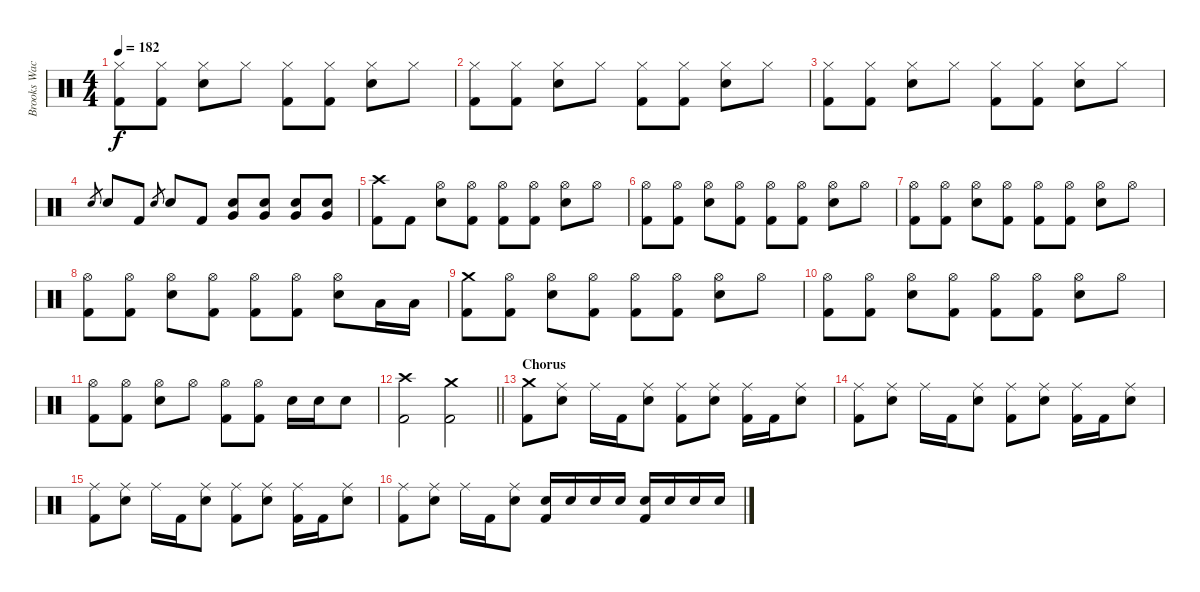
\track ("Brooks Wackerman" "Brooks Wac") {instrument percussion}
\staff {score}
\articulation defaults
\ts (4 4)
\tempo 182
\clef neutral
\ks c
("Hi-Hat (closed)" "Kick (hit) 2").8{dy f} ("Hi-Hat (closed)" "Kick (hit) 2").8 ("Hi-Hat (closed)" "Electric Snare (hit)").8 "Hi-Hat (closed)".8 ("Hi-Hat (closed)" "Kick (hit) 2").8 ("Hi-Hat (closed)" "Kick (hit) 2").8 ("Hi-Hat (closed)" "Electric Snare (hit)").8 "Hi-Hat (closed)".8 |
("Hi-Hat (closed)" "Kick (hit) 2").8 ("Hi-Hat (closed)" "Kick (hit) 2").8 ("Hi-Hat (closed)" "Electric Snare (hit)").8 "Hi-Hat (closed)".8 ("Hi-Hat (closed)" "Kick (hit) 2").8 ("Hi-Hat (closed)" "Kick (hit) 2").8 ("Hi-Hat (closed)" "Electric Snare (hit)").8 "Hi-Hat (closed)".8 |
("Hi-Hat (closed)" "Kick (hit) 2").8 ("Hi-Hat (closed)" "Kick (hit) 2").8 ("Hi-Hat (closed)" "Electric Snare (hit)").8 "Hi-Hat (closed)".8 ("Hi-Hat (closed)" "Kick (hit) 2").8 ("Hi-Hat (closed)" "Kick (hit) 2").8 ("Hi-Hat (closed)" "Electric Snare (hit)").8 "Hi-Hat (closed)".8 |
"Electric Snare (hit)".8{gr} "Electric Snare (hit)".8 "Kick (hit) 2".8 "Electric Snare (hit)".8{gr} "Electric Snare (hit)".8 "Kick (hit) 2".8 ("Very Low Tom (hit)" "Electric Snare (hit)").8 ("Very Low Tom (hit)" "Electric Snare (hit)").8 ("Very Low Tom (hit)" "Electric Snare (hit)").8 ("Very Low Tom (hit)" "Electric Snare (hit)").8 |
("Crash high (hit)" "Kick (hit) 2").8 "Kick (hit) 2".8 ("Hi-Hat (open)" "Electric Snare (hit)").8 ("Hi-Hat (open)" "Kick (hit) 2").8 ("Hi-Hat (open)" "Kick (hit) 2").8 ("Hi-Hat (open)" "Kick (hit) 2").8 ("Hi-Hat (open)" "Electric Snare (hit)").8 "Hi-Hat (open)".8 |
("Hi-Hat (open)" "Kick (hit) 2").8 ("Hi-Hat (open)" "Kick (hit) 2").8 ("Hi-Hat (open)" "Electric Snare (hit)").8 ("Hi-Hat (open)" "Kick (hit) 2").8 ("Hi-Hat (open)" "Kick (hit) 2").8 ("Hi-Hat (open)" "Kick (hit) 2").8 ("Hi-Hat (open)" "Electric Snare (hit)").8 "Hi-Hat (open)".8 |
("Hi-Hat (open)" "Kick (hit) 2").8 ("Hi-Hat (open)" "Kick (hit) 2").8 ("Hi-Hat (open)" "Electric Snare (hit)").8 ("Hi-Hat (open)" "Kick (hit) 2").8 ("Hi-Hat (open)" "Kick (hit) 2").8 ("Hi-Hat (open)" "Kick (hit) 2").8 ("Hi-Hat (open)" "Electric Snare (hit)").8 "Hi-Hat (open)".8 |
("Hi-Hat (open)" "Kick (hit) 2").8 ("Hi-Hat (open)" "Kick (hit) 2").8 ("Hi-Hat (open)" "Electric Snare (hit)").8 ("Hi-Hat (open)" "Kick (hit) 2").8 ("Hi-Hat (open)" "Kick (hit) 2").8 ("Hi-Hat (open)" "Kick (hit) 2").8 ("Hi-Hat (open)" "Electric Snare (hit)").8 "Low Tom (hit)".16 "Low Tom (hit)".16 |
("Crash medium (hit)" "Kick (hit) 2").8 ("Hi-Hat (open)" "Kick (hit) 2").8 ("Hi-Hat (open)" "Electric Snare (hit)").8 ("Hi-Hat (open)" "Kick (hit) 2").8 ("Hi-Hat (open)" "Kick (hit) 2").8 ("Hi-Hat (open)" "Kick (hit) 2").8 ("Hi-Hat (open)" "Electric Snare (hit)").8 "Hi-Hat (open)".8 |
("Hi-Hat (open)" "Kick (hit) 2").8 ("Hi-Hat (open)" "Kick (hit) 2").8 ("Hi-Hat (open)" "Electric Snare (hit)").8 ("Hi-Hat (open)" "Kick (hit) 2").8 ("Hi-Hat (open)" "Kick (hit) 2").8 ("Hi-Hat (open)" "Kick (hit) 2").8 ("Hi-Hat (open)" "Electric Snare (hit)").8 "Hi-Hat (open)".8 |
("Hi-Hat (open)" "Kick (hit) 2").8 ("Hi-Hat (open)" "Kick (hit) 2").8 ("Hi-Hat (open)" "Electric Snare (hit)").8 "Hi-Hat (open)".8 ("Hi-Hat (open)" "Kick (hit) 2").8 ("Hi-Hat (open)" "Kick (hit) 2").8 "Electric Snare (hit)".16 "Electric Snare (hit)".16 "Electric Snare (hit)".8 |
\barLineRight lightlight
("Crash high (hit)" "Kick (hit) 2").2 ("Crash medium (hit)" "Kick (hit) 2").2 |
\section ("" "Chorus")
("Crash medium (hit)" "Kick (hit) 2").8 ("Ride (middle)" "Electric Snare (hit)").8 "Ride (middle)".16 "Kick (hit) 2".16 ("Ride (middle)" "Electric Snare (hit)").8 ("Ride (middle)" "Kick (hit) 2").8 ("Ride (middle)" "Electric Snare (hit)").8 ("Ride (middle)" "Kick (hit) 2").16 "Kick (hit) 2".16 ("Ride (middle)" "Electric Snare (hit)").8 |
("Ride (middle)" "Kick (hit) 2").8 ("Ride (middle)" "Electric Snare (hit)").8 "Ride (middle)".16 "Kick (hit) 2".16 ("Ride (middle)" "Electric Snare (hit)").8 ("Ride (middle)" "Kick (hit) 2").8 ("Ride (middle)" "Electric Snare (hit)").8 ("Ride (middle)" "Kick (hit) 2").16 "Kick (hit) 2".16 ("Ride (middle)" "Electric Snare (hit)").8 |
("Ride (middle)" "Kick (hit) 2").8 ("Ride (middle)" "Electric Snare (hit)").8 "Ride (middle)".16 "Kick (hit) 2".16 ("Ride (middle)" "Electric Snare (hit)").8 ("Ride (middle)" "Kick (hit) 2").8 ("Ride (middle)" "Electric Snare (hit)").8 ("Ride (middle)" "Kick (hit) 2").16 "Kick (hit) 2".16 ("Ride (middle)" "Electric Snare (hit)").8 |
("Ride (middle)" "Kick (hit) 2").8 ("Ride (middle)" "Electric Snare (hit)").8 "Ride (middle)".16 "Kick (hit) 2".16 ("Ride (middle)" "Electric Snare (hit)").8 ("Electric Snare (hit)" "Kick (hit) 2").16 "Electric Snare (hit)".16 "Electric Snare (hit)".16 "Electric Snare (hit)".16 ("Electric Snare (hit)" "Kick (hit) 2").16 "Electric Snare (hit)".16 "Electric Snare (hit)".16 "Electric Snare (hit)".16
